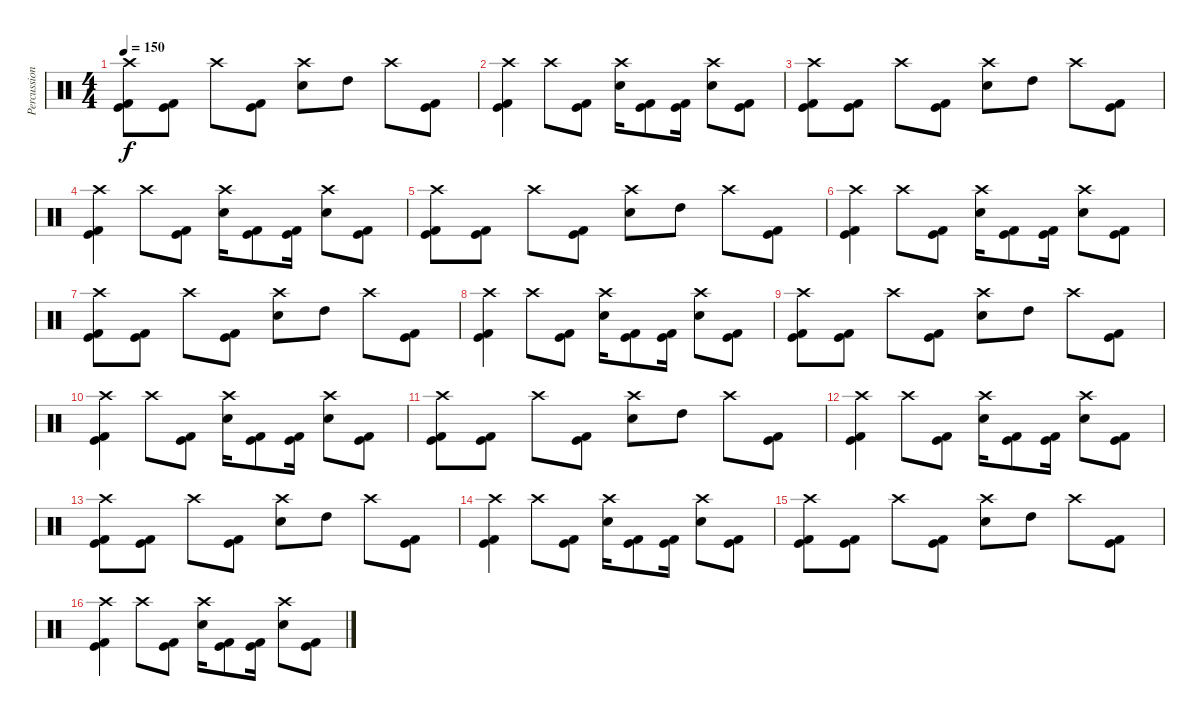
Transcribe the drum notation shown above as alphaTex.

\track ("Percussion" "Percussion") {instrument percussion}
\staff {score}
\articulation defaults
\ts (4 4)
\tempo 150
\clef neutral
\ks c
("Crash high (hit)" "Kick (hit)" "Kick (hit) 2").8{dy f} ("Kick (hit)" "Kick (hit) 2").8 "Crash high (hit)".8 ("Kick (hit)" "Kick (hit) 2").8 ("Crash high (hit)" "Electric Snare (hit)").8 "High Tom (hit)".8 "Crash high (hit)".8 ("Kick (hit)" "Kick (hit) 2").8 |
("Crash high (hit)" "Kick (hit)" "Kick (hit) 2").4 "Crash high (hit)".8 ("Kick (hit)" "Kick (hit) 2").8 ("Crash high (hit)" "Electric Snare (hit)").16 ("Kick (hit)" "Kick (hit) 2").8 ("Kick (hit)" "Kick (hit) 2").16 ("Crash high (hit)" "Electric Snare (hit)").8 ("Kick (hit)" "Kick (hit) 2").8 |
("Crash high (hit)" "Kick (hit)" "Kick (hit) 2").8 ("Kick (hit)" "Kick (hit) 2").8 "Crash high (hit)".8 ("Kick (hit)" "Kick (hit) 2").8 ("Crash high (hit)" "Electric Snare (hit)").8 "High Tom (hit)".8 "Crash high (hit)".8 ("Kick (hit)" "Kick (hit) 2").8 |
("Crash high (hit)" "Kick (hit)" "Kick (hit) 2").4 "Crash high (hit)".8 ("Kick (hit)" "Kick (hit) 2").8 ("Crash high (hit)" "Electric Snare (hit)").16 ("Kick (hit)" "Kick (hit) 2").8 ("Kick (hit)" "Kick (hit) 2").16 ("Crash high (hit)" "Electric Snare (hit)").8 ("Kick (hit)" "Kick (hit) 2").8 |
("Crash high (hit)" "Kick (hit)" "Kick (hit) 2").8 ("Kick (hit)" "Kick (hit) 2").8 "Crash high (hit)".8 ("Kick (hit)" "Kick (hit) 2").8 ("Crash high (hit)" "Electric Snare (hit)").8 "High Tom (hit)".8 "Crash high (hit)".8 ("Kick (hit)" "Kick (hit) 2").8 |
("Crash high (hit)" "Kick (hit)" "Kick (hit) 2").4 "Crash high (hit)".8 ("Kick (hit)" "Kick (hit) 2").8 ("Crash high (hit)" "Electric Snare (hit)").16 ("Kick (hit)" "Kick (hit) 2").8 ("Kick (hit)" "Kick (hit) 2").16 ("Crash high (hit)" "Electric Snare (hit)").8 ("Kick (hit)" "Kick (hit) 2").8 |
("Crash high (hit)" "Kick (hit)" "Kick (hit) 2").8 ("Kick (hit)" "Kick (hit) 2").8 "Crash high (hit)".8 ("Kick (hit)" "Kick (hit) 2").8 ("Crash high (hit)" "Electric Snare (hit)").8 "High Tom (hit)".8 "Crash high (hit)".8 ("Kick (hit)" "Kick (hit) 2").8 |
("Crash high (hit)" "Kick (hit)" "Kick (hit) 2").4 "Crash high (hit)".8 ("Kick (hit)" "Kick (hit) 2").8 ("Crash high (hit)" "Electric Snare (hit)").16 ("Kick (hit)" "Kick (hit) 2").8 ("Kick (hit)" "Kick (hit) 2").16 ("Crash high (hit)" "Electric Snare (hit)").8 ("Kick (hit)" "Kick (hit) 2").8 |
("Crash high (hit)" "Kick (hit)" "Kick (hit) 2").8 ("Kick (hit)" "Kick (hit) 2").8 "Crash high (hit)".8 ("Kick (hit)" "Kick (hit) 2").8 ("Crash high (hit)" "Electric Snare (hit)").8 "High Tom (hit)".8 "Crash high (hit)".8 ("Kick (hit)" "Kick (hit) 2").8 |
("Crash high (hit)" "Kick (hit)" "Kick (hit) 2").4 "Crash high (hit)".8 ("Kick (hit)" "Kick (hit) 2").8 ("Crash high (hit)" "Electric Snare (hit)").16 ("Kick (hit)" "Kick (hit) 2").8 ("Kick (hit)" "Kick (hit) 2").16 ("Crash high (hit)" "Electric Snare (hit)").8 ("Kick (hit)" "Kick (hit) 2").8 |
("Crash high (hit)" "Kick (hit)" "Kick (hit) 2").8 ("Kick (hit)" "Kick (hit) 2").8 "Crash high (hit)".8 ("Kick (hit)" "Kick (hit) 2").8 ("Crash high (hit)" "Electric Snare (hit)").8 "High Tom (hit)".8 "Crash high (hit)".8 ("Kick (hit)" "Kick (hit) 2").8 |
("Crash high (hit)" "Kick (hit)" "Kick (hit) 2").4 "Crash high (hit)".8 ("Kick (hit)" "Kick (hit) 2").8 ("Crash high (hit)" "Electric Snare (hit)").16 ("Kick (hit)" "Kick (hit) 2").8 ("Kick (hit)" "Kick (hit) 2").16 ("Crash high (hit)" "Electric Snare (hit)").8 ("Kick (hit)" "Kick (hit) 2").8 |
("Crash high (hit)" "Kick (hit)" "Kick (hit) 2").8 ("Kick (hit)" "Kick (hit) 2").8 "Crash high (hit)".8 ("Kick (hit)" "Kick (hit) 2").8 ("Crash high (hit)" "Electric Snare (hit)").8 "High Tom (hit)".8 "Crash high (hit)".8 ("Kick (hit)" "Kick (hit) 2").8 |
("Crash high (hit)" "Kick (hit)" "Kick (hit) 2").4 "Crash high (hit)".8 ("Kick (hit)" "Kick (hit) 2").8 ("Crash high (hit)" "Electric Snare (hit)").16 ("Kick (hit)" "Kick (hit) 2").8 ("Kick (hit)" "Kick (hit) 2").16 ("Crash high (hit)" "Electric Snare (hit)").8 ("Kick (hit)" "Kick (hit) 2").8 |
("Crash high (hit)" "Kick (hit)" "Kick (hit) 2").8 ("Kick (hit)" "Kick (hit) 2").8 "Crash high (hit)".8 ("Kick (hit)" "Kick (hit) 2").8 ("Crash high (hit)" "Electric Snare (hit)").8 "High Tom (hit)".8 "Crash high (hit)".8 ("Kick (hit)" "Kick (hit) 2").8 |
("Crash high (hit)" "Kick (hit)" "Kick (hit) 2").4 "Crash high (hit)".8 ("Kick (hit)" "Kick (hit) 2").8 ("Crash high (hit)" "Electric Snare (hit)").16 ("Kick (hit)" "Kick (hit) 2").8 ("Kick (hit)" "Kick (hit) 2").16 ("Crash high (hit)" "Electric Snare (hit)").8 ("Kick (hit)" "Kick (hit) 2").8
